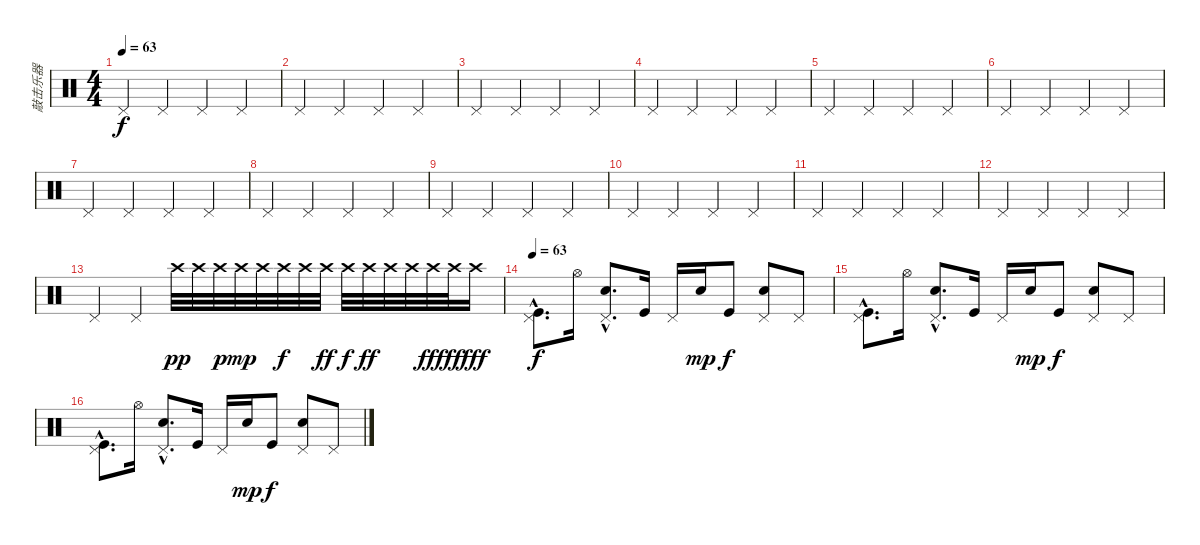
\track ("敲击乐器" "敲击乐器") {instrument percussion}
\staff {score}
\articulation defaults
\ts (4 4)
\tempo 63
\clef neutral
\ks c "Pedal Hi-Hat (hit)".4{dy f} "Pedal Hi-Hat (hit)".4 "Pedal Hi-Hat (hit)".4 "Pedal Hi-Hat (hit)".4
|
"Pedal Hi-Hat (hit)".4 "Pedal Hi-Hat (hit)".4 "Pedal Hi-Hat (hit)".4 "Pedal Hi-Hat (hit)".4 |
"Pedal Hi-Hat (hit)".4 "Pedal Hi-Hat (hit)".4 "Pedal Hi-Hat (hit)".4 "Pedal Hi-Hat (hit)".4 |
"Pedal Hi-Hat (hit)".4 "Pedal Hi-Hat (hit)".4 "Pedal Hi-Hat (hit)".4 "Pedal Hi-Hat (hit)".4 |
"Pedal Hi-Hat (hit)".4 "Pedal Hi-Hat (hit)".4 "Pedal Hi-Hat (hit)".4 "Pedal Hi-Hat (hit)".4 |
"Pedal Hi-Hat (hit)".4 "Pedal Hi-Hat (hit)".4 "Pedal Hi-Hat (hit)".4 "Pedal Hi-Hat (hit)".4 |
"Pedal Hi-Hat (hit)".4 "Pedal Hi-Hat (hit)".4 "Pedal Hi-Hat (hit)".4 "Pedal Hi-Hat (hit)".4 |
"Pedal Hi-Hat (hit)".4 "Pedal Hi-Hat (hit)".4 "Pedal Hi-Hat (hit)".4 "Pedal Hi-Hat (hit)".4 |
"Pedal Hi-Hat (hit)".4 "Pedal Hi-Hat (hit)".4 "Pedal Hi-Hat (hit)".4 "Pedal Hi-Hat (hit)".4 |
"Pedal Hi-Hat (hit)".4 "Pedal Hi-Hat (hit)".4 "Pedal Hi-Hat (hit)".4 "Pedal Hi-Hat (hit)".4 |
"Pedal Hi-Hat (hit)".4 "Pedal Hi-Hat (hit)".4 "Pedal Hi-Hat (hit)".4 "Pedal Hi-Hat (hit)".4 |
"Pedal Hi-Hat (hit)".4 "Pedal Hi-Hat (hit)".4 "Pedal Hi-Hat (hit)".4 "Pedal Hi-Hat (hit)".4 |
"Pedal Hi-Hat (hit)".4 "Pedal Hi-Hat (hit)".4 "Crash high (hit)".32{dy pp} "Crash high (hit)".32 "Crash high (hit)".32{dy p} "Crash high (hit)".32{dy mp} "Crash high (hit)".32 "Crash high (hit)".32{dy f} "Crash high (hit)".32 "Crash high (hit)".32{dy ff} "Crash high (hit)".32{dy f} "Crash high (hit)".32{dy ff} "Crash high (hit)".32 "Crash high (hit)".32 "Crash high (hit)".32{dy fff} "Crash high (hit)".32{dy ff} "Crash high (hit)".16{dy fff} |
\tempo 63
("Pedal Hi-Hat (hit)"{hac} "Kick (hit)"{hac}).8{d dy f} "Hi-Hat (open)".16 ("Pedal Hi-Hat (hit)"{hac} "Snare (hit) 2"{hac}).8{d} "Kick (hit)".16 "Pedal Hi-Hat (hit)".16 "Electric Snare (hit)".16{dy mp} "Kick (hit)".8{dy f} ("Pedal Hi-Hat (hit)" "Snare (hit) 2").8 "Pedal Hi-Hat (hit)".8 |
("Pedal Hi-Hat (hit)"{hac} "Kick (hit)"{hac}).8{d} "Hi-Hat (open)".16 ("Pedal Hi-Hat (hit)"{hac} "Snare (hit) 2"{hac}).8{d} "Kick (hit)".16 "Pedal Hi-Hat (hit)".16 "Electric Snare (hit)".16{dy mp} "Kick (hit)".8{dy f} ("Pedal Hi-Hat (hit)" "Snare (hit) 2").8 "Pedal Hi-Hat (hit)".8 |
("Pedal Hi-Hat (hit)"{hac} "Kick (hit)"{hac}).8{d} "Hi-Hat (open)".16 ("Pedal Hi-Hat (hit)"{hac} "Snare (hit) 2"{hac}).8{d} "Kick (hit)".16 "Pedal Hi-Hat (hit)".16 "Electric Snare (hit)".16{dy mp} "Kick (hit)".8{dy f} ("Pedal Hi-Hat (hit)" "Snare (hit) 2").8 "Pedal Hi-Hat (hit)".8
